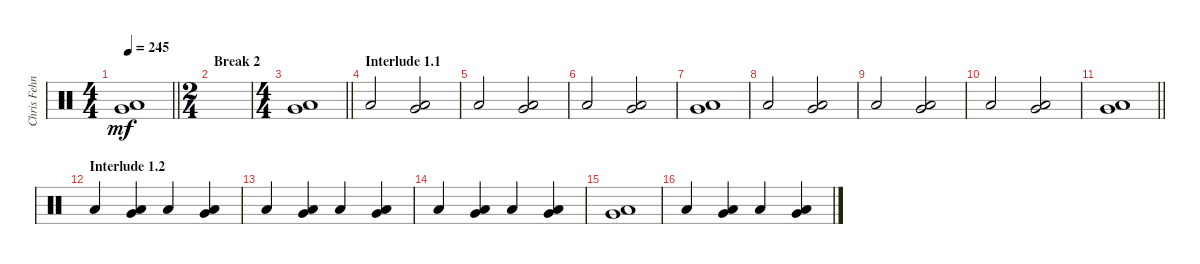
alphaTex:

\track ("Chris Fehn" "Chris Fehn") {instrument percussion}
\staff {score}
\articulation defaults
\ts (4 4)
\tempo 245
\clef neutral
\barLineRight lightlight
\ks c
("Very Low Tom (hit)" "Low Floor Tom (hit)").1{dy mf} |
\ts (2 4)
\section ("" "Break 2")
|
\ts (4 4)
\barLineRight lightlight
("Very Low Tom (hit)" "Low Floor Tom (hit)").1 |
\section ("" "Interlude 1.1")
"Low Floor Tom (hit)".2 ("Very Low Tom (hit)" "Low Floor Tom (hit)").2 |
"Low Floor Tom (hit)".2 ("Very Low Tom (hit)" "Low Floor Tom (hit)").2 |
"Low Floor Tom (hit)".2 ("Very Low Tom (hit)" "Low Floor Tom (hit)").2 |
("Very Low Tom (hit)" "Low Floor Tom (hit)").1 |
"Low Floor Tom (hit)".2 ("Very Low Tom (hit)" "Low Floor Tom (hit)").2 |
"Low Floor Tom (hit)".2 ("Very Low Tom (hit)" "Low Floor Tom (hit)").2 |
"Low Floor Tom (hit)".2 ("Very Low Tom (hit)" "Low Floor Tom (hit)").2 |
\barLineRight lightlight
("Very Low Tom (hit)" "Low Floor Tom (hit)").1 |
\section ("" "Interlude 1.2")
"Low Floor Tom (hit)".4 ("Very Low Tom (hit)" "Low Floor Tom (hit)").4 "Low Floor Tom (hit)".4 ("Very Low Tom (hit)" "Low Floor Tom (hit)").4 |
"Low Floor Tom (hit)".4 ("Very Low Tom (hit)" "Low Floor Tom (hit)").4 "Low Floor Tom (hit)".4 ("Very Low Tom (hit)" "Low Floor Tom (hit)").4 |
"Low Floor Tom (hit)".4 ("Very Low Tom (hit)" "Low Floor Tom (hit)").4 "Low Floor Tom (hit)".4 ("Very Low Tom (hit)" "Low Floor Tom (hit)").4 |
("Very Low Tom (hit)" "Low Floor Tom (hit)").1 |
"Low Floor Tom (hit)".4 ("Very Low Tom (hit)" "Low Floor Tom (hit)").4 "Low Floor Tom (hit)".4 ("Very Low Tom (hit)" "Low Floor Tom (hit)").4
